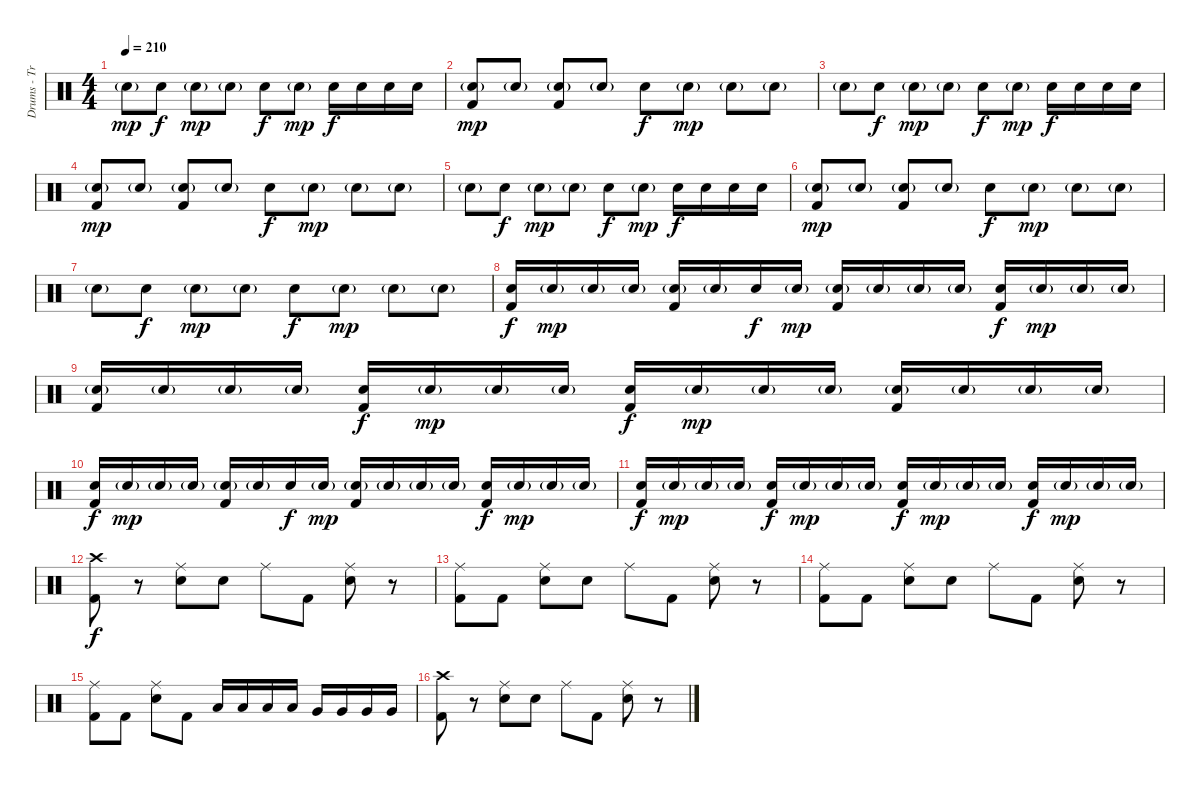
\track ("Drums - Travis Barker" "Drums - Tr") {instrument percussion}
\staff {score}
\articulation defaults
\ts (4 4)
\tempo 210
\clef neutral
\ks c "Snare (hit) 2"{g}.8{dy mp} "Electric Snare (hit)".8{dy f} "Electric Snare (hit)"{g}.8{dy mp} "Electric Snare (hit)"{g}.8 "Electric Snare (hit)".8{dy f} "Snare (hit) 2"{g}.8{dy mp} "Electric Snare (hit)".16{dy f} "Electric Snare (hit)".16 "Electric Snare (hit)".16 "Electric Snare (hit)".16
|
("Electric Snare (hit)"{g} "Kick (hit) 2").8{dy mp} "Electric Snare (hit)"{g}.8 ("Electric Snare (hit)"{g} "Kick (hit) 2").8 "Electric Snare (hit)"{g}.8 "Electric Snare (hit)".8{dy f} "Electric Snare (hit)"{g}.8{dy mp} "Electric Snare (hit)"{g}.8 "Electric Snare (hit)"{g}.8 |
"Electric Snare (hit)"{g}.8 "Electric Snare (hit)".8{dy f} "Electric Snare (hit)"{g}.8{dy mp} "Electric Snare (hit)"{g}.8 "Electric Snare (hit)".8{dy f} "Electric Snare (hit)"{g}.8{dy mp} "Electric Snare (hit)".16{dy f} "Electric Snare (hit)".16 "Electric Snare (hit)".16 "Electric Snare (hit)".16 |
("Electric Snare (hit)"{g} "Kick (hit) 2").8{dy mp} "Electric Snare (hit)"{g}.8 ("Electric Snare (hit)"{g} "Kick (hit) 2").8 "Electric Snare (hit)"{g}.8 "Electric Snare (hit)".8{dy f} "Electric Snare (hit)"{g}.8{dy mp} "Electric Snare (hit)"{g}.8 "Electric Snare (hit)"{g}.8 |
"Electric Snare (hit)"{g}.8 "Electric Snare (hit)".8{dy f} "Electric Snare (hit)"{g}.8{dy mp} "Electric Snare (hit)"{g}.8 "Electric Snare (hit)".8{dy f} "Electric Snare (hit)"{g}.8{dy mp} "Electric Snare (hit)".16{dy f} "Electric Snare (hit)".16 "Electric Snare (hit)".16 "Electric Snare (hit)".16 |
("Electric Snare (hit)"{g} "Kick (hit) 2").8{dy mp} "Electric Snare (hit)"{g}.8 ("Electric Snare (hit)"{g} "Kick (hit) 2").8 "Electric Snare (hit)"{g}.8 "Electric Snare (hit)".8{dy f} "Electric Snare (hit)"{g}.8{dy mp} "Electric Snare (hit)"{g}.8 "Electric Snare (hit)"{g}.8 |
"Electric Snare (hit)"{g}.8 "Electric Snare (hit)".8{dy f} "Electric Snare (hit)"{g}.8{dy mp} "Electric Snare (hit)"{g}.8 "Electric Snare (hit)".8{dy f} "Electric Snare (hit)"{g}.8{dy mp} "Electric Snare (hit)"{g}.8 "Electric Snare (hit)"{g}.8 |
("Electric Snare (hit)" "Kick (hit) 2").16{dy f volume 6} "Electric Snare (hit)"{g}.16{dy mp volume 8} "Electric Snare (hit)"{g}.16 "Electric Snare (hit)"{g}.16 ("Electric Snare (hit)"{g} "Kick (hit) 2").16 "Electric Snare (hit)"{g}.16 "Electric Snare (hit)".16{dy f} "Electric Snare (hit)"{g}.16{dy mp} ("Electric Snare (hit)"{g} "Kick (hit) 2").16 "Electric Snare (hit)"{g}.16 "Electric Snare (hit)"{g}.16 "Electric Snare (hit)"{g}.16 ("Electric Snare (hit)" "Kick (hit) 2").16{dy f} "Electric Snare (hit)"{g}.16{dy mp} "Electric Snare (hit)"{g}.16 "Electric Snare (hit)"{g}.16 |
("Electric Snare (hit)"{g} "Kick (hit) 2").16 "Electric Snare (hit)"{g}.16 "Electric Snare (hit)"{g}.16 "Electric Snare (hit)"{g}.16 ("Electric Snare (hit)" "Kick (hit) 2").16{dy f} "Electric Snare (hit)"{g}.16{dy mp} "Electric Snare (hit)"{g}.16 "Electric Snare (hit)"{g}.16 ("Electric Snare (hit)" "Kick (hit) 2").16{dy f} "Electric Snare (hit)"{g}.16{dy mp} "Electric Snare (hit)"{g}.16 "Electric Snare (hit)"{g}.16 ("Electric Snare (hit)"{g} "Kick (hit) 2").16 "Electric Snare (hit)"{g}.16 "Electric Snare (hit)"{g}.16 "Electric Snare (hit)"{g}.16 |
("Electric Snare (hit)" "Kick (hit) 2").16{dy f volume 9} "Electric Snare (hit)"{g}.16{dy mp} "Electric Snare (hit)"{g}.16 "Electric Snare (hit)"{g}.16 ("Electric Snare (hit)"{g} "Kick (hit) 2").16 "Electric Snare (hit)"{g}.16 "Electric Snare (hit)".16{dy f} "Electric Snare (hit)"{g}.16{dy mp} ("Electric Snare (hit)"{g} "Kick (hit) 2").16 "Electric Snare (hit)"{g}.16 "Electric Snare (hit)"{g}.16 "Electric Snare (hit)"{g}.16 ("Electric Snare (hit)" "Kick (hit) 2").16{dy f} "Electric Snare (hit)"{g}.16{dy mp} "Electric Snare (hit)"{g}.16 "Electric Snare (hit)"{g}.16 |
("Electric Snare (hit)" "Kick (hit) 2").16{dy f volume 13} "Electric Snare (hit)"{g}.16{dy mp} "Electric Snare (hit)"{g}.16 "Electric Snare (hit)"{g}.16 ("Electric Snare (hit)" "Kick (hit) 2").16{dy f} "Electric Snare (hit)"{g}.16{dy mp} "Electric Snare (hit)"{g}.16 "Electric Snare (hit)"{g}.16 ("Electric Snare (hit)" "Kick (hit) 2").16{dy f} "Electric Snare (hit)"{g}.16{dy mp} "Electric Snare (hit)"{g}.16 "Electric Snare (hit)"{g}.16 ("Electric Snare (hit)" "Kick (hit) 2").16{dy f} "Electric Snare (hit)"{g}.16{dy mp} "Electric Snare (hit)"{g}.16 "Electric Snare (hit)"{g}.16 |
("Crash high (hit)" "Kick (hit) 2").8{dy f} r.8 ("Ride (middle)" "Electric Snare (hit)").8 "Electric Snare (hit)".8 "Ride (middle)".8 "Kick (hit) 2".8 ("Ride (middle)" "Electric Snare (hit)").8 r.8 |
("Ride (middle)" "Kick (hit) 2").8 "Kick (hit) 2".8 ("Ride (middle)" "Electric Snare (hit)").8 "Electric Snare (hit)".8 "Ride (middle)".8 "Kick (hit) 2".8 ("Ride (middle)" "Electric Snare (hit)").8 r.8 |
("Ride (middle)" "Kick (hit) 2").8 "Kick (hit) 2".8 ("Ride (middle)" "Electric Snare (hit)").8 "Electric Snare (hit)".8 "Ride (middle)".8 "Kick (hit) 2".8 ("Ride (middle)" "Electric Snare (hit)").8 r.8 |
("Ride (middle)" "Kick (hit) 2").8 "Kick (hit) 2".8 ("Ride (middle)" "Electric Snare (hit)").8 "Kick (hit) 2".8 "Low Tom (hit)".16 "Low Tom (hit)".16 "Low Tom (hit)".16 "Low Tom (hit)".16 "Very Low Tom (hit)".16 "Very Low Tom (hit)".16 "Very Low Tom (hit)".16 "Very Low Tom (hit)".16 |
("Crash high (hit)" "Kick (hit) 2").8 r.8 ("Ride (middle)" "Electric Snare (hit)").8 "Electric Snare (hit)".8 "Ride (middle)".8 "Kick (hit) 2".8 ("Ride (middle)" "Electric Snare (hit)").8 r.8
